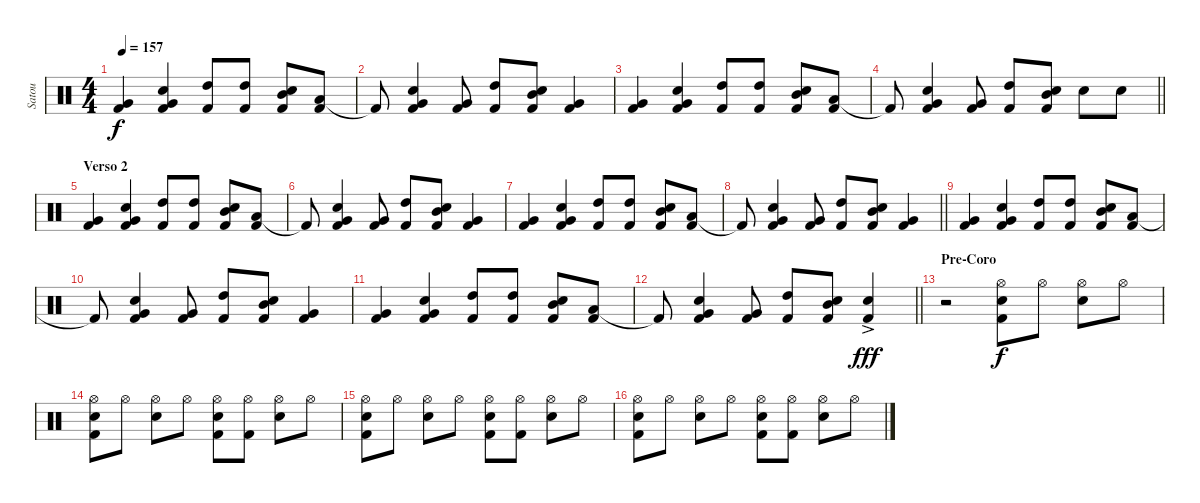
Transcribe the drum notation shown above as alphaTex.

\track ("Satou" "Satou") {instrument percussion}
\staff {score}
\articulation defaults
\ts (4 4)
\tempo 157
\clef neutral
\ks c
("Very Low Tom (hit)" "Kick (hit) 2").4{dy f} ("Very Low Tom (hit)" "Kick (hit) 2" "Snare (hit) 2").4 ("High Tom (hit)" "Kick (hit) 2").8 ("High Tom (hit)" "Kick (hit) 2").8 ("Mid Tom (hit)" "Kick (hit) 2" "Snare (hit) 2").8 ("Low Tom (hit)" "Kick (hit) 2").8 |
"Kick (hit) 2"{t}.8 ("Very Low Tom (hit)" "Kick (hit) 2" "Snare (hit) 2").4 ("Very Low Tom (hit)" "Kick (hit) 2").8 ("High Tom (hit)" "Kick (hit) 2").8 ("Mid Tom (hit)" "Kick (hit) 2" "Snare (hit) 2").8 ("Very Low Tom (hit)" "Kick (hit) 2").4 |
("Very Low Tom (hit)" "Kick (hit) 2").4 ("Very Low Tom (hit)" "Kick (hit) 2" "Snare (hit) 2").4 ("High Tom (hit)" "Kick (hit) 2").8 ("High Tom (hit)" "Kick (hit) 2").8 ("Mid Tom (hit)" "Kick (hit) 2" "Snare (hit) 2").8 ("Low Tom (hit)" "Kick (hit) 2").8 |
\barLineRight lightlight "Kick (hit) 2"{t}.8
("Very Low Tom (hit)" "Kick (hit) 2" "Snare (hit) 2").4 ("Very Low Tom (hit)" "Kick (hit) 2").8 ("High Tom (hit)" "Kick (hit) 2").8 ("Mid Tom (hit)" "Kick (hit) 2" "Snare (hit) 2").8 "Snare (hit) 2".8 "Snare (hit) 2".8 |
\section ("" "Verso 2")
("Very Low Tom (hit)" "Kick (hit) 2").4 ("Very Low Tom (hit)" "Kick (hit) 2" "Snare (hit) 2").4 ("High Tom (hit)" "Kick (hit) 2").8 ("High Tom (hit)" "Kick (hit) 2").8 ("Mid Tom (hit)" "Kick (hit) 2" "Snare (hit) 2").8 ("Low Tom (hit)" "Kick (hit) 2").8 |
"Kick (hit) 2"{t}.8 ("Very Low Tom (hit)" "Kick (hit) 2" "Snare (hit) 2").4 ("Very Low Tom (hit)" "Kick (hit) 2").8 ("High Tom (hit)" "Kick (hit) 2").8 ("Mid Tom (hit)" "Kick (hit) 2" "Snare (hit) 2").8 ("Very Low Tom (hit)" "Kick (hit) 2").4 |
("Very Low Tom (hit)" "Kick (hit) 2").4 ("Very Low Tom (hit)" "Kick (hit) 2" "Snare (hit) 2").4 ("High Tom (hit)" "Kick (hit) 2").8 ("High Tom (hit)" "Kick (hit) 2").8 ("Mid Tom (hit)" "Kick (hit) 2" "Snare (hit) 2").8 ("Low Tom (hit)" "Kick (hit) 2").8 |
\barLineRight lightlight "Kick (hit) 2"{t}.8
("Very Low Tom (hit)" "Kick (hit) 2" "Snare (hit) 2").4 ("Very Low Tom (hit)" "Kick (hit) 2").8 ("High Tom (hit)" "Kick (hit) 2").8 ("Mid Tom (hit)" "Kick (hit) 2" "Snare (hit) 2").8 ("Very Low Tom (hit)" "Kick (hit) 2").4 |
("Very Low Tom (hit)" "Kick (hit) 2").4 ("Very Low Tom (hit)" "Kick (hit) 2" "Snare (hit) 2").4 ("High Tom (hit)" "Kick (hit) 2").8 ("High Tom (hit)" "Kick (hit) 2").8 ("Mid Tom (hit)" "Kick (hit) 2" "Snare (hit) 2").8 ("Low Tom (hit)" "Kick (hit) 2").8 |
"Kick (hit) 2"{t}.8 ("Very Low Tom (hit)" "Kick (hit) 2" "Snare (hit) 2").4 ("Very Low Tom (hit)" "Kick (hit) 2").8 ("High Tom (hit)" "Kick (hit) 2").8 ("Mid Tom (hit)" "Kick (hit) 2" "Snare (hit) 2").8 ("Very Low Tom (hit)" "Kick (hit) 2").4 |
("Very Low Tom (hit)" "Kick (hit) 2").4 ("Very Low Tom (hit)" "Kick (hit) 2" "Snare (hit) 2").4 ("High Tom (hit)" "Kick (hit) 2").8 ("High Tom (hit)" "Kick (hit) 2").8 ("Mid Tom (hit)" "Kick (hit) 2" "Snare (hit) 2").8 ("Low Tom (hit)" "Kick (hit) 2").8 |
\barLineRight lightlight "Kick (hit) 2"{t}.8
("Very Low Tom (hit)" "Kick (hit) 2" "Snare (hit) 2").4 ("Very Low Tom (hit)" "Kick (hit) 2").8 ("High Tom (hit)" "Kick (hit) 2").8 ("Mid Tom (hit)" "Kick (hit) 2" "Snare (hit) 2").8 ("Snare (hit) 2"{ac} "Kick (hit) 2").4{dy fff} |
\section ("" "Pre-Coro")
r.2 ("Hi-Hat (open)" "Kick (hit) 2" "Snare (hit) 2").8{dy f} "Hi-Hat (open)".8 ("Hi-Hat (open)" "Snare (hit) 2").8 "Hi-Hat (open)".8 |
("Hi-Hat (open)" "Kick (hit) 2" "Snare (hit) 2").8 "Hi-Hat (open)".8 ("Hi-Hat (open)" "Snare (hit) 2").8 "Hi-Hat (open)".8 ("Hi-Hat (open)" "Kick (hit) 2" "Snare (hit) 2").8 ("Hi-Hat (open)" "Kick (hit) 2").8 ("Hi-Hat (open)" "Snare (hit) 2").8 "Hi-Hat (open)".8 |
("Hi-Hat (open)" "Kick (hit) 2" "Snare (hit) 2").8 "Hi-Hat (open)".8 ("Hi-Hat (open)" "Snare (hit) 2").8 "Hi-Hat (open)".8 ("Hi-Hat (open)" "Kick (hit) 2" "Snare (hit) 2").8 ("Hi-Hat (open)" "Kick (hit) 2").8 ("Hi-Hat (open)" "Snare (hit) 2").8 "Hi-Hat (open)".8 |
("Hi-Hat (open)" "Kick (hit) 2" "Snare (hit) 2").8 "Hi-Hat (open)".8 ("Hi-Hat (open)" "Snare (hit) 2").8 "Hi-Hat (open)".8 ("Hi-Hat (open)" "Kick (hit) 2" "Snare (hit) 2").8 ("Hi-Hat (open)" "Kick (hit) 2").8 ("Hi-Hat (open)" "Snare (hit) 2").8 "Hi-Hat (open)".8
